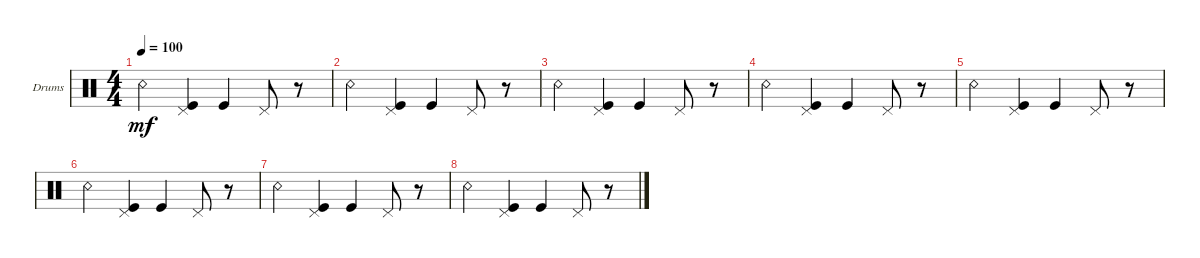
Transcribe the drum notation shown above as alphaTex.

\defaultSystemsLayout 4
\bracketExtendMode groupsimilarinstruments
\firstSystemTrackNameOrientation horizontal
\otherSystemsTrackNameOrientation horizontal
\track ("Drumkit" "Drums") {instrument percussion}
\staff {score}
\articulation defaults
\ts (4 4)
\tempo 100
\clef neutral
\ks c "Snare (rim shot)".4{dy mf}
("Kick (hit)" "Pedal Hi-Hat (hit)").4 "Kick (hit)".4 "Pedal Hi-Hat (hit)".8 r.8 |
"Snare (rim shot)".4 ("Kick (hit)" "Pedal Hi-Hat (hit)").4 "Kick (hit)".4 "Pedal Hi-Hat (hit)".8 r.8 |
"Snare (rim shot)".4 ("Kick (hit)" "Pedal Hi-Hat (hit)").4 "Kick (hit)".4 "Pedal Hi-Hat (hit)".8 r.8 |
"Snare (rim shot)".4 ("Kick (hit)" "Pedal Hi-Hat (hit)").4 "Kick (hit)".4 "Pedal Hi-Hat (hit)".8 r.8 |
"Snare (rim shot)".4 ("Kick (hit)" "Pedal Hi-Hat (hit)").4 "Kick (hit)".4 "Pedal Hi-Hat (hit)".8 r.8 |
"Snare (rim shot)".4 ("Kick (hit)" "Pedal Hi-Hat (hit)").4 "Kick (hit)".4 "Pedal Hi-Hat (hit)".8 r.8 |
"Snare (rim shot)".4 ("Kick (hit)" "Pedal Hi-Hat (hit)").4 "Kick (hit)".4 "Pedal Hi-Hat (hit)".8 r.8 |
"Snare (rim shot)".4 ("Kick (hit)" "Pedal Hi-Hat (hit)").4 "Kick (hit)".4 "Pedal Hi-Hat (hit)".8 r.8
